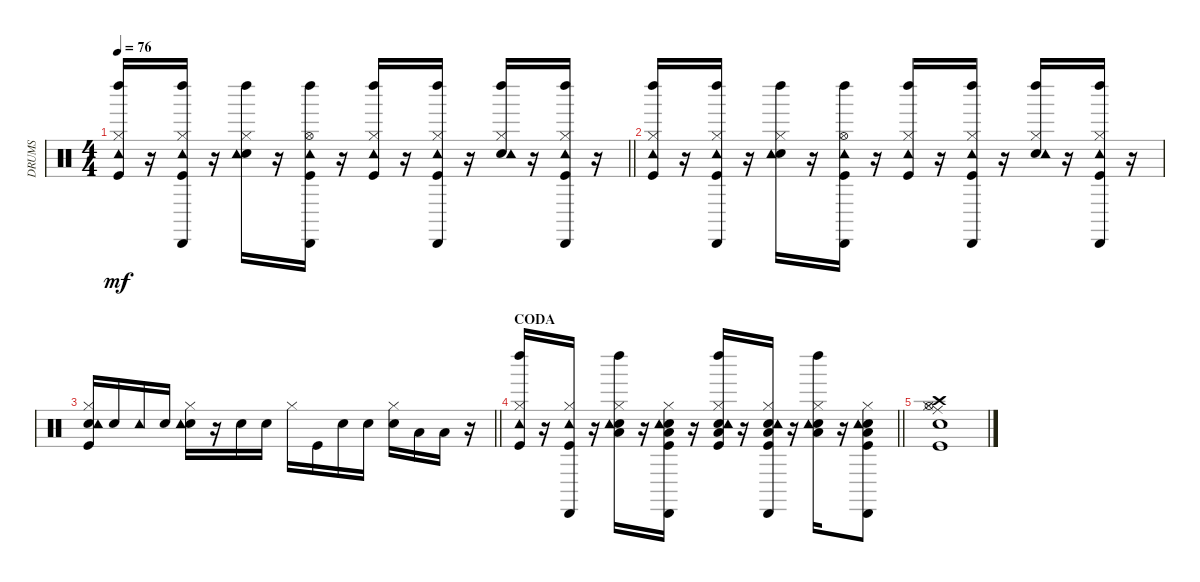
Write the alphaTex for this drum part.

\track ("DRUMS" "DRUMS") {instrument percussion}
\staff {score}
\articulation defaults
\ts (4 4)
\tempo 76
\clef neutral
\barLineRight lightlight
\ks c
("Kick (hit)" "Hi-Hat (closed)" "Tambourine (hit)" "Left Maraca (hit)").16{dy mf} r.16 ("Kick (hit)" "Hi-Hat (closed)" "Tambourine (hit)" "Left Maraca (hit)" "Cabasa (hit)").16 r.16 ("Snare (hit) 2" "Hi-Hat (closed)" "Tambourine (hit)" "Left Maraca (hit)").16 r.16 ("Kick (hit)" "Hi-Hat (open)" "Tambourine (hit)" "Left Maraca (hit)" "Cabasa (hit)").16 r.16 ("Kick (hit)" "Hi-Hat (closed)" "Tambourine (hit)" "Left Maraca (hit)").16 r.16 ("Kick (hit)" "Hi-Hat (closed)" "Tambourine (hit)" "Left Maraca (hit)" "Cabasa (hit)").16 r.16 ("Snare (hit) 2" "Hi-Hat (closed)" "Tambourine (hit)" "Left Maraca (hit)").16 r.16 ("Kick (hit)" "Hi-Hat (closed)" "Tambourine (hit)" "Left Maraca (hit)" "Cabasa (hit)").16 r.16 |
("Kick (hit)" "Hi-Hat (closed)" "Tambourine (hit)" "Left Maraca (hit)").16 r.16 ("Kick (hit)" "Hi-Hat (closed)" "Tambourine (hit)" "Left Maraca (hit)" "Cabasa (hit)").16 r.16 ("Snare (hit) 2" "Hi-Hat (closed)" "Tambourine (hit)" "Left Maraca (hit)").16 r.16 ("Kick (hit)" "Hi-Hat (open)" "Tambourine (hit)" "Left Maraca (hit)" "Cabasa (hit)").16 r.16 ("Kick (hit)" "Hi-Hat (closed)" "Tambourine (hit)" "Left Maraca (hit)").16 r.16 ("Kick (hit)" "Hi-Hat (closed)" "Tambourine (hit)" "Left Maraca (hit)" "Cabasa (hit)").16 r.16 ("Snare (hit) 2" "Hi-Hat (closed)" "Tambourine (hit)" "Left Maraca (hit)").16 r.16 ("Kick (hit)" "Hi-Hat (closed)" "Tambourine (hit)" "Left Maraca (hit)" "Cabasa (hit)").16 r.16 |
\barLineRight lightlight
("Kick (hit)" "Snare (hit) 2" "Hi-Hat (closed)" "Tambourine (hit)").16 "Snare (hit) 2".16 "Tambourine (hit)".16 "Snare (hit) 2".16 ("Snare (hit) 2" "Hi-Hat (closed)" "Tambourine (hit)").16 r.16 "Snare (hit) 2".16 "Snare (hit) 2".16 "Hi-Hat (closed)".16 "Kick (hit)".16 "Snare (hit) 2".16 "Snare (hit) 2".16 ("Snare (hit) 2" "Hi-Hat (closed)").16 "Low Tom (hit)".16 "Low Floor Tom (hit)".16 r.16 |
\section ("" "CODA")
\barLineRight lightlight
("Kick (hit)" "Hi-Hat (closed)" "Tambourine (hit)" "Left Maraca (hit)").16 r.16 ("Kick (hit)" "Hi-Hat (closed)" "Tambourine (hit)" "Cabasa (hit)").16 r.16 ("Snare (hit) 2" "Hi-Hat (closed)" "Low Floor Tom (hit)" "Tambourine (hit)" "Left Maraca (hit)").16 r.16 ("Kick (hit)" "Snare (hit) 2" "Hi-Hat (closed)" "Low Floor Tom (hit)" "Tambourine (hit)" "Cabasa (hit)").16 r.16 ("Kick (hit)" "Snare (hit) 2" "Hi-Hat (closed)" "Low Floor Tom (hit)" "Tambourine (hit)" "Left Maraca (hit)").16 r.16 ("Kick (hit)" "Snare (hit) 2" "Hi-Hat (closed)" "Low Floor Tom (hit)" "Tambourine (hit)" "Cabasa (hit)").16 r.16 ("Snare (hit) 2" "Hi-Hat (closed)" "Low Floor Tom (hit)" "Tambourine (hit)" "Left Maraca (hit)").16 r.16 ("Kick (hit)" "Snare (hit) 2" "Hi-Hat (closed)" "Low Floor Tom (hit)" "Tambourine (hit)" "Cabasa (hit)").8 |
("Kick (hit)" "Snare (hit) 2" "Hi-Hat (closed)" "Hi-Hat (open)" "Ride (middle)" "Crash high (hit)").1
